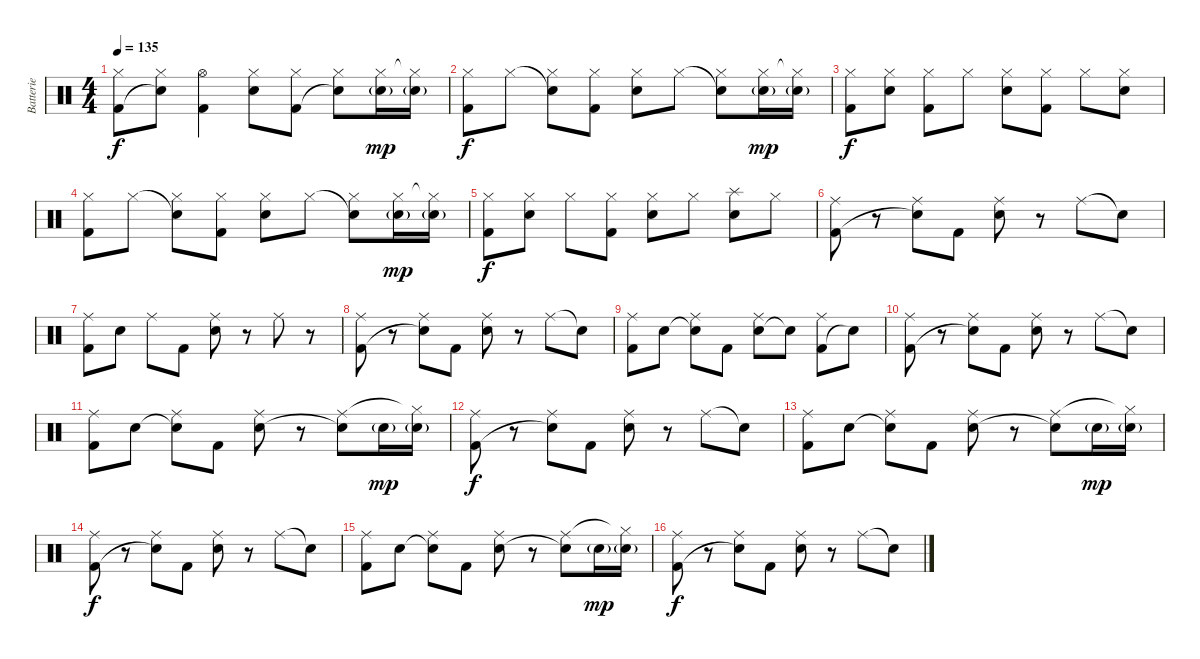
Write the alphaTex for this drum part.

\track ("Batterie" "Batterie") {instrument percussion}
\staff {score}
\articulation defaults
\ts (4 4)
\tempo 135
\clef neutral
\ks c
("Kick (hit) 2" "Hi-Hat (closed)").8{dy f} ("Snare (hit)"{t} "Hi-Hat (closed)").8 ("Kick (hit) 2" "Hi-Hat (open)").4 ("Snare (hit) 2" "Hi-Hat (closed)").8 ("Kick (hit) 2" "Hi-Hat (closed)").8 ("Snare (hit)"{t} "Hi-Hat (closed)").8 ("Snare (hit) 2"{g} "Hi-Hat (closed)").16{dy mp} ("Snare (hit) 2"{g} "Hi-Hat (closed)"{t}).16 |
("Kick (hit) 2" "Hi-Hat (closed)").8{dy f} "Hi-Hat (closed)".8 ("Snare (hit)"{t} "Hi-Hat (closed)").8 ("Kick (hit) 2" "Hi-Hat (closed)").8 ("Snare (hit) 2" "Hi-Hat (closed)").8 "Hi-Hat (closed)".8 ("Snare (hit)"{t} "Hi-Hat (closed)").8 ("Snare (hit) 2"{g} "Hi-Hat (closed)").16{dy mp} ("Snare (hit) 2"{g} "Hi-Hat (closed)"{t}).16 |
("Kick (hit) 2" "Hi-Hat (closed)").8{dy f} ("Snare (hit) 2" "Hi-Hat (closed)").8 ("Kick (hit) 2" "Hi-Hat (closed)").8 "Hi-Hat (closed)".8 ("Snare (hit) 2" "Hi-Hat (closed)").8 ("Kick (hit) 2" "Hi-Hat (closed)").8 "Hi-Hat (closed)".8 ("Snare (hit) 2" "Hi-Hat (closed)").8 |
("Kick (hit) 2" "Hi-Hat (closed)").8 "Hi-Hat (closed)".8 ("Snare (hit)"{t} "Hi-Hat (closed)").8 ("Kick (hit) 2" "Hi-Hat (closed)").8 ("Snare (hit) 2" "Hi-Hat (closed)").8 "Hi-Hat (closed)".8 ("Snare (hit)"{t} "Hi-Hat (closed)").8 ("Snare (hit) 2"{g} "Hi-Hat (closed)").16{dy mp} ("Snare (hit) 2"{g} "Hi-Hat (closed)"{t}).16 |
("Kick (hit) 2" "Hi-Hat (closed)").8{dy f} ("Snare (hit) 2" "Hi-Hat (closed)").8 "Hi-Hat (closed)".8 ("Kick (hit) 2" "Hi-Hat (closed)").8 ("Snare (hit) 2" "Hi-Hat (closed)").8 "Hi-Hat (closed)".8 ("Snare (hit) 2" "Splash (hit)").8 "Hi-Hat (closed)".8 |
("Kick (hit) 2" "Ride (middle)").8 r.8 ("Snare (hit)"{t} "Ride (middle)").8 "Kick (hit) 2".8 ("Snare (hit) 2" "Ride (middle)").8 r.8 "Ride (middle)".8 "Snare (hit)"{t}.8 |
("Kick (hit) 2" "Ride (middle)").8 "Snare (hit) 2".8 "Ride (middle)".8 "Kick (hit) 2".8 ("Snare (hit) 2" "Ride (middle)").8 r.8 "Ride (middle)".8 r.8 |
("Kick (hit) 2" "Ride (middle)").8 r.8 ("Snare (hit)"{t} "Ride (middle)").8 "Kick (hit) 2".8 ("Snare (hit) 2" "Ride (middle)").8 r.8 "Ride (middle)".8 "Snare (hit)"{t}.8 |
("Kick (hit) 2" "Ride (middle)").8 "Snare (hit) 2".8 ("Snare (hit)"{t} "Ride (middle)").8 "Kick (hit) 2".8 ("Snare (hit) 2" "Ride (middle)").8 "Snare (hit)"{t}.8 ("Kick (hit) 2" "Ride (middle)").8 "Snare (hit)"{t}.8 |
("Kick (hit) 2" "Ride (middle)").8 r.8 ("Snare (hit)"{t} "Ride (middle)").8 "Kick (hit) 2".8 ("Snare (hit) 2" "Ride (middle)").8 r.8 "Ride (middle)".8 "Snare (hit)"{t}.8 |
("Kick (hit) 2" "Ride (middle)").8 "Snare (hit) 2".8 ("Snare (hit)"{t} "Ride (middle)").8 "Kick (hit) 2".8 ("Snare (hit) 2" "Ride (middle)").8 r.8 ("Snare (hit)"{t} "Ride (middle)").8 "Snare (hit) 2"{g}.16{dy mp} ("Snare (hit) 2"{g} "Hi-Hat (closed)"{t}).16 |
("Kick (hit) 2" "Ride (middle)").8{dy f} r.8 ("Snare (hit)"{t} "Ride (middle)").8 "Kick (hit) 2".8 ("Snare (hit) 2" "Ride (middle)").8 r.8 "Ride (middle)".8 "Snare (hit)"{t}.8 |
("Kick (hit) 2" "Ride (middle)").8 "Snare (hit) 2".8 ("Snare (hit)"{t} "Ride (middle)").8 "Kick (hit) 2".8 ("Snare (hit) 2" "Ride (middle)").8 r.8 ("Snare (hit)"{t} "Ride (middle)").8 "Snare (hit) 2"{g}.16{dy mp} ("Snare (hit) 2"{g} "Hi-Hat (closed)"{t}).16 |
("Kick (hit) 2" "Ride (middle)").8{dy f} r.8 ("Snare (hit)"{t} "Ride (middle)").8 "Kick (hit) 2".8 ("Snare (hit) 2" "Ride (middle)").8 r.8 "Ride (middle)".8 "Snare (hit)"{t}.8 |
("Kick (hit) 2" "Ride (middle)").8 "Snare (hit) 2".8 ("Snare (hit)"{t} "Ride (middle)").8 "Kick (hit) 2".8 ("Snare (hit) 2" "Ride (middle)").8 r.8 ("Snare (hit)"{t} "Ride (middle)").8 "Snare (hit) 2"{g}.16{dy mp} ("Snare (hit) 2"{g} "Hi-Hat (closed)"{t}).16 |
("Kick (hit) 2" "Ride (middle)").8{dy f} r.8 ("Snare (hit)"{t} "Ride (middle)").8 "Kick (hit) 2".8 ("Snare (hit) 2" "Ride (middle)").8 r.8 "Ride (middle)".8 "Snare (hit)"{t}.8
